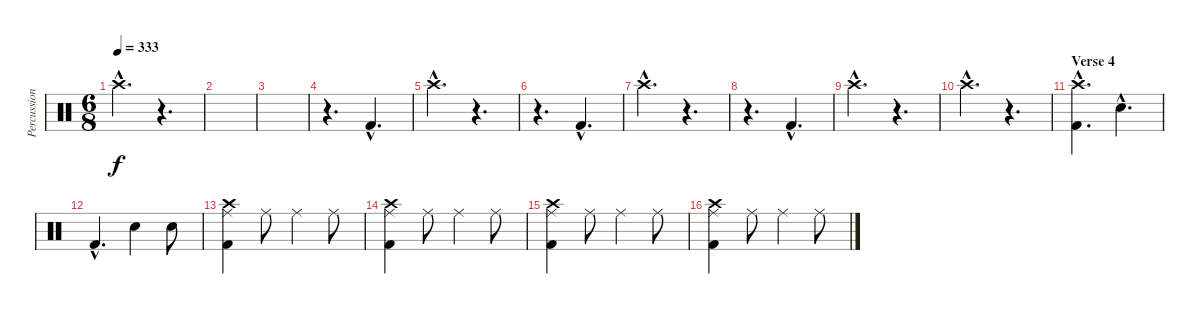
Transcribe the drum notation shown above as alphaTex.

\track ("Percussion" "Percussion") {instrument percussion}
\staff {score}
\articulation defaults
\ts (6 8)
\tempo 333
\clef neutral
\ks c "Crash high (hit)"{hac}.4{d dy f}
r.4{d} |
|
|
r.4{d} "Kick (hit) 2"{hac}.4{d} |
"Crash high (hit)"{hac}.4{d} r.4{d} |
r.4{d} "Kick (hit) 2"{hac}.4{d} |
"Crash high (hit)"{hac}.4{d} r.4{d} |
r.4{d} "Kick (hit) 2"{hac}.4{d} |
"Crash high (hit)"{hac}.4{d} r.4{d} |
"Crash high (hit)"{hac}.4{d} r.4{d} |
\section ("" "Verse 4")
("Crash high (hit)"{hac} "Kick (hit) 2"{hac}).4{d} "Snare (hit) 2"{hac}.4{d} |
"Kick (hit) 2"{hac}.4{d} "Electric Snare (hit)".4 "Electric Snare (hit)".8 |
("Crash high (hit)" "Ride (middle)" "Kick (hit) 2").4 "Ride (middle)".8 "Ride (middle)".4 "Ride (middle)".8 |
("Crash high (hit)" "Ride (middle)" "Kick (hit) 2").4 "Ride (middle)".8 "Ride (middle)".4 "Ride (middle)".8 |
("Crash high (hit)" "Ride (middle)" "Kick (hit) 2").4 "Ride (middle)".8 "Ride (middle)".4 "Ride (middle)".8 |
("Crash high (hit)" "Ride (middle)" "Kick (hit) 2").4 "Ride (middle)".8 "Ride (middle)".4 "Ride (middle)".8
